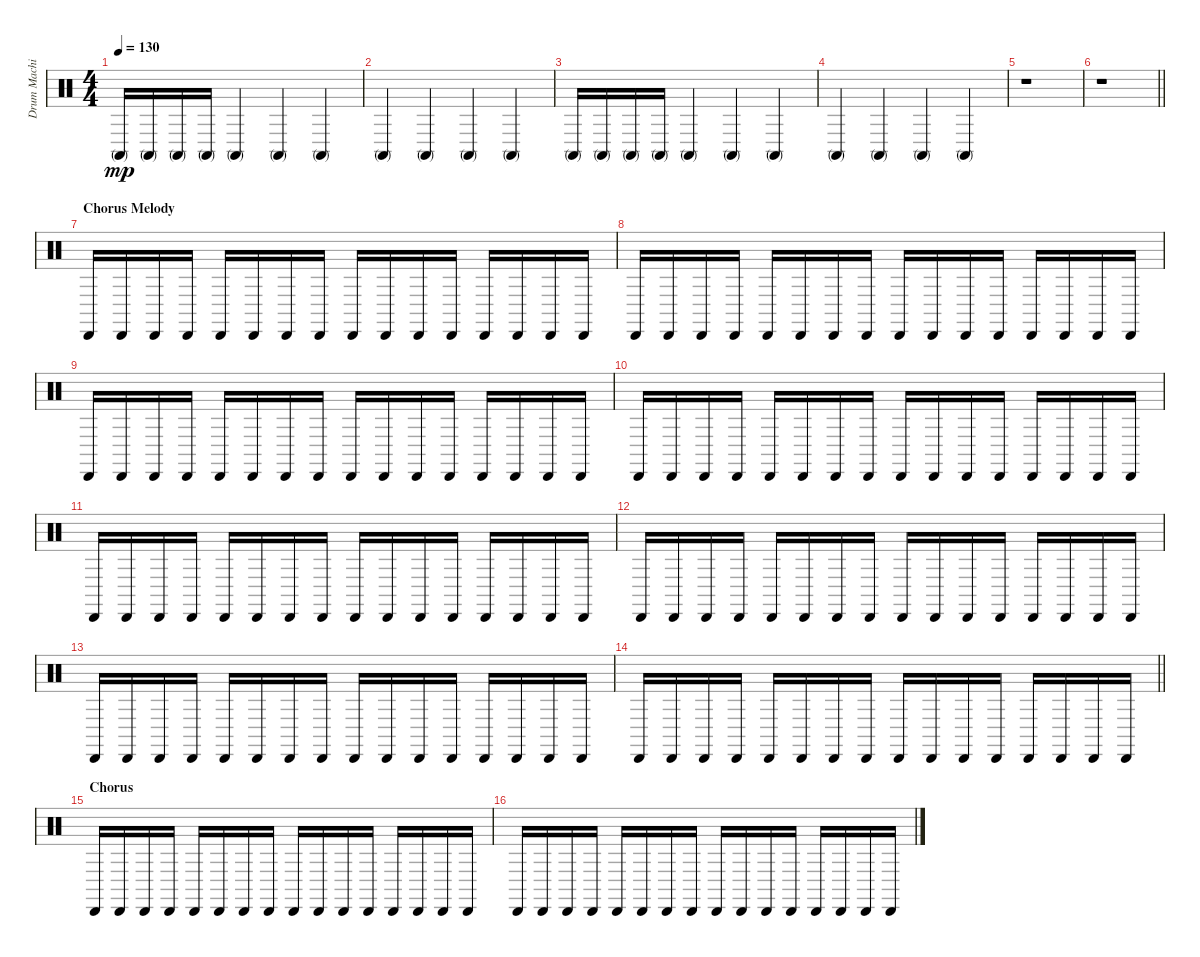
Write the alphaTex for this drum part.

\track ("Drum Machine" "Drum Machi") {instrument percussion}
\staff {score}
\articulation defaults
\ts (4 4)
\tempo 130
\clef neutral
\ks c "Conga high (mute)".16{dy mp} "Conga high (mute)".16 "Conga high (mute)".16 "Conga high (mute)".16 "Conga high (mute)".4 "Conga high (mute)".4 "Conga high (mute)".4
|
"Conga high (mute)".4 "Conga high (mute)".4 "Conga high (mute)".4 "Conga high (mute)".4 |
"Conga high (mute)".16 "Conga high (mute)".16 "Conga high (mute)".16 "Conga high (mute)".16 "Conga high (mute)".4 "Conga high (mute)".4 "Conga high (mute)".4 |
"Conga high (mute)".4 "Conga high (mute)".4 "Conga high (mute)".4 "Conga high (mute)".4 |
r.1 |
\barLineRight lightlight
r.1 |
\section ("" "Chorus Melody")
"Cabasa (hit)".16 "Cabasa (hit)".16 "Cabasa (hit)".16 "Cabasa (hit)".16 "Cabasa (hit)".16 "Cabasa (hit)".16 "Cabasa (hit)".16 "Cabasa (hit)".16 "Cabasa (hit)".16 "Cabasa (hit)".16 "Cabasa (hit)".16 "Cabasa (hit)".16 "Cabasa (hit)".16 "Cabasa (hit)".16 "Cabasa (hit)".16 "Cabasa (hit)".16 |
"Cabasa (hit)".16 "Cabasa (hit)".16 "Cabasa (hit)".16 "Cabasa (hit)".16 "Cabasa (hit)".16 "Cabasa (hit)".16 "Cabasa (hit)".16 "Cabasa (hit)".16 "Cabasa (hit)".16 "Cabasa (hit)".16 "Cabasa (hit)".16 "Cabasa (hit)".16 "Cabasa (hit)".16 "Cabasa (hit)".16 "Cabasa (hit)".16 "Cabasa (hit)".16 |
"Cabasa (hit)".16 "Cabasa (hit)".16 "Cabasa (hit)".16 "Cabasa (hit)".16 "Cabasa (hit)".16 "Cabasa (hit)".16 "Cabasa (hit)".16 "Cabasa (hit)".16 "Cabasa (hit)".16 "Cabasa (hit)".16 "Cabasa (hit)".16 "Cabasa (hit)".16 "Cabasa (hit)".16 "Cabasa (hit)".16 "Cabasa (hit)".16 "Cabasa (hit)".16 |
"Cabasa (hit)".16 "Cabasa (hit)".16 "Cabasa (hit)".16 "Cabasa (hit)".16 "Cabasa (hit)".16 "Cabasa (hit)".16 "Cabasa (hit)".16 "Cabasa (hit)".16 "Cabasa (hit)".16 "Cabasa (hit)".16 "Cabasa (hit)".16 "Cabasa (hit)".16 "Cabasa (hit)".16 "Cabasa (hit)".16 "Cabasa (hit)".16 "Cabasa (hit)".16 |
"Cabasa (hit)".16 "Cabasa (hit)".16 "Cabasa (hit)".16 "Cabasa (hit)".16 "Cabasa (hit)".16 "Cabasa (hit)".16 "Cabasa (hit)".16 "Cabasa (hit)".16 "Cabasa (hit)".16 "Cabasa (hit)".16 "Cabasa (hit)".16 "Cabasa (hit)".16 "Cabasa (hit)".16 "Cabasa (hit)".16 "Cabasa (hit)".16 "Cabasa (hit)".16 |
"Cabasa (hit)".16 "Cabasa (hit)".16 "Cabasa (hit)".16 "Cabasa (hit)".16 "Cabasa (hit)".16 "Cabasa (hit)".16 "Cabasa (hit)".16 "Cabasa (hit)".16 "Cabasa (hit)".16 "Cabasa (hit)".16 "Cabasa (hit)".16 "Cabasa (hit)".16 "Cabasa (hit)".16 "Cabasa (hit)".16 "Cabasa (hit)".16 "Cabasa (hit)".16 |
"Cabasa (hit)".16 "Cabasa (hit)".16 "Cabasa (hit)".16 "Cabasa (hit)".16 "Cabasa (hit)".16 "Cabasa (hit)".16 "Cabasa (hit)".16 "Cabasa (hit)".16 "Cabasa (hit)".16 "Cabasa (hit)".16 "Cabasa (hit)".16 "Cabasa (hit)".16 "Cabasa (hit)".16 "Cabasa (hit)".16 "Cabasa (hit)".16 "Cabasa (hit)".16 |
\barLineRight lightlight "Cabasa (hit)".16 "Cabasa (hit)".16 "Cabasa (hit)".16 "Cabasa (hit)".16 "Cabasa (hit)".16 "Cabasa (hit)".16 "Cabasa (hit)".16 "Cabasa (hit)".16 "Cabasa (hit)".16 "Cabasa (hit)".16 "Cabasa (hit)".16 "Cabasa (hit)".16 "Cabasa (hit)".16 "Cabasa (hit)".16 "Cabasa (hit)".16 "Cabasa (hit)".16
|
\section ("" "Chorus")
"Cabasa (hit)".16 "Cabasa (hit)".16 "Cabasa (hit)".16 "Cabasa (hit)".16 "Cabasa (hit)".16 "Cabasa (hit)".16 "Cabasa (hit)".16 "Cabasa (hit)".16 "Cabasa (hit)".16 "Cabasa (hit)".16 "Cabasa (hit)".16 "Cabasa (hit)".16 "Cabasa (hit)".16 "Cabasa (hit)".16 "Cabasa (hit)".16 "Cabasa (hit)".16 |
"Cabasa (hit)".16 "Cabasa (hit)".16 "Cabasa (hit)".16 "Cabasa (hit)".16 "Cabasa (hit)".16 "Cabasa (hit)".16 "Cabasa (hit)".16 "Cabasa (hit)".16 "Cabasa (hit)".16 "Cabasa (hit)".16 "Cabasa (hit)".16 "Cabasa (hit)".16 "Cabasa (hit)".16 "Cabasa (hit)".16 "Cabasa (hit)".16 "Cabasa (hit)".16
